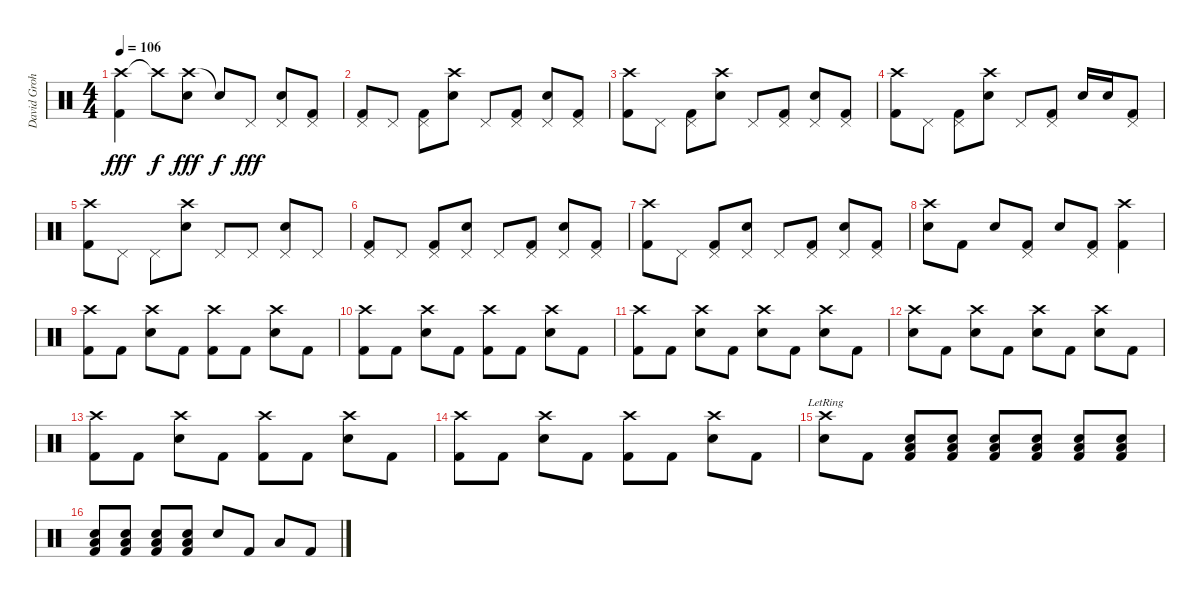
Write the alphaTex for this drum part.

\track ("David Grohl 2 Crash Style !!" "David Groh") {instrument percussion}
\staff {score}
\articulation defaults
\ts (4 4)
\tempo 106
\clef neutral
\ks c
("Crash high (hit)" "Kick (hit) 2").4{dy fff} "Crash high (hit)"{t}.8{dy f} ("Crash high (hit)" "Snare (hit) 2").8{dy fff} "Snare (hit)"{t}.8{dy f} "Pedal Hi-Hat (hit)".8{dy fff} ("Pedal Hi-Hat (hit)" "Snare (hit) 2").8 ("Pedal Hi-Hat (hit)" "Kick (hit) 2").8 |
("Pedal Hi-Hat (hit)" "Kick (hit) 2").8 "Pedal Hi-Hat (hit)".8 ("Pedal Hi-Hat (hit)" "Kick (hit) 2").8 ("Crash high (hit)" "Snare (hit) 2").8 "Pedal Hi-Hat (hit)".8 ("Pedal Hi-Hat (hit)" "Kick (hit) 2").8 ("Pedal Hi-Hat (hit)" "Snare (hit) 2").8 ("Pedal Hi-Hat (hit)" "Kick (hit) 2").8 |
("Crash high (hit)" "Kick (hit) 2").8 "Pedal Hi-Hat (hit)".8 ("Pedal Hi-Hat (hit)" "Kick (hit) 2").8 ("Crash high (hit)" "Snare (hit) 2").8 "Pedal Hi-Hat (hit)".8 ("Pedal Hi-Hat (hit)" "Kick (hit) 2").8 ("Pedal Hi-Hat (hit)" "Snare (hit) 2").8 ("Pedal Hi-Hat (hit)" "Kick (hit) 2").8 |
("Crash high (hit)" "Kick (hit) 2").8 "Pedal Hi-Hat (hit)".8 ("Pedal Hi-Hat (hit)" "Kick (hit) 2").8 ("Crash high (hit)" "Snare (hit) 2").8 "Pedal Hi-Hat (hit)".8 ("Pedal Hi-Hat (hit)" "Kick (hit) 2").8 "Snare (hit) 2".16 "Snare (hit) 2".16 ("Pedal Hi-Hat (hit)" "Kick (hit) 2").8 |
("Crash high (hit)" "Kick (hit) 2").8 "Pedal Hi-Hat (hit)".8 "Pedal Hi-Hat (hit)".8 ("Crash high (hit)" "Snare (hit) 2").8 "Pedal Hi-Hat (hit)".8 "Pedal Hi-Hat (hit)".8 ("Pedal Hi-Hat (hit)" "Snare (hit) 2").8 "Pedal Hi-Hat (hit)".8 |
("Pedal Hi-Hat (hit)" "Kick (hit) 2").8 "Pedal Hi-Hat (hit)".8 ("Pedal Hi-Hat (hit)" "Kick (hit) 2").8 ("Pedal Hi-Hat (hit)" "Snare (hit) 2").8 "Pedal Hi-Hat (hit)".8 ("Pedal Hi-Hat (hit)" "Kick (hit) 2").8 ("Pedal Hi-Hat (hit)" "Snare (hit) 2").8 ("Pedal Hi-Hat (hit)" "Kick (hit) 2").8 |
("Crash high (hit)" "Kick (hit) 2").8 "Pedal Hi-Hat (hit)".8 ("Pedal Hi-Hat (hit)" "Kick (hit) 2").8 ("Pedal Hi-Hat (hit)" "Snare (hit) 2").8 "Pedal Hi-Hat (hit)".8 ("Pedal Hi-Hat (hit)" "Kick (hit) 2").8 ("Pedal Hi-Hat (hit)" "Snare (hit) 2").8 ("Pedal Hi-Hat (hit)" "Kick (hit) 2").8 |
("Crash high (hit)" "Snare (hit) 2").8 "Kick (hit) 2".8 "Snare (hit) 2".8 ("Pedal Hi-Hat (hit)" "Kick (hit) 2").8 "Snare (hit) 2".8 ("Pedal Hi-Hat (hit)" "Kick (hit) 2").8 ("Crash high (hit)" "Kick (hit) 2").4 |
("Crash high (hit)" "Kick (hit) 2").8 "Kick (hit) 2".8 ("Crash high (hit)" "Snare (hit) 2").8 "Kick (hit) 2".8 ("Crash high (hit)" "Kick (hit) 2").8 "Kick (hit) 2".8 ("Crash high (hit)" "Snare (hit) 2").8 "Kick (hit) 2".8 |
("Crash high (hit)" "Kick (hit) 2").8 "Kick (hit) 2".8 ("Crash high (hit)" "Snare (hit) 2").8 "Kick (hit) 2".8 ("Crash high (hit)" "Kick (hit) 2").8 "Kick (hit) 2".8 ("Crash high (hit)" "Snare (hit) 2").8 "Kick (hit) 2".8 |
("Crash high (hit)" "Kick (hit) 2").8 "Kick (hit) 2".8 ("Crash high (hit)" "Snare (hit) 2").8 "Kick (hit) 2".8 ("Crash high (hit)" "Snare (hit) 2").8 "Kick (hit) 2".8 ("Crash high (hit)" "Snare (hit) 2").8 "Kick (hit) 2".8 |
("Crash high (hit)" "Snare (hit) 2").8 "Kick (hit) 2".8 ("Crash high (hit)" "Snare (hit) 2").8 "Kick (hit) 2".8 ("Crash high (hit)" "Snare (hit) 2").8 "Kick (hit) 2".8 ("Crash high (hit)" "Snare (hit) 2").8 "Kick (hit) 2".8 |
("Crash high (hit)" "Kick (hit) 2").8 "Kick (hit) 2".8 ("Crash high (hit)" "Snare (hit) 2").8 "Kick (hit) 2".8 ("Crash high (hit)" "Kick (hit) 2").8 "Kick (hit) 2".8 ("Crash high (hit)" "Snare (hit) 2").8 "Kick (hit) 2".8 |
("Crash high (hit)" "Kick (hit) 2").8 "Kick (hit) 2".8 ("Crash high (hit)" "Snare (hit) 2").8 "Kick (hit) 2".8 ("Crash high (hit)" "Kick (hit) 2").8 "Kick (hit) 2".8 ("Crash high (hit)" "Snare (hit) 2").8 "Kick (hit) 2".8 |
("Crash high (hit)"{lr} "Snare (hit) 2").8 "Kick (hit) 2".8 ("Snare (hit) 2" "Low Tom (hit)" "Kick (hit) 2").8 ("Snare (hit) 2" "Low Tom (hit)" "Kick (hit) 2").8 ("Snare (hit) 2" "Low Tom (hit)" "Kick (hit) 2").8 ("Snare (hit) 2" "Low Tom (hit)" "Kick (hit) 2").8 ("Snare (hit) 2" "Low Tom (hit)" "Kick (hit) 2").8 ("Snare (hit) 2" "Low Tom (hit)" "Kick (hit) 2").8 |
("Snare (hit) 2" "Low Tom (hit)" "Kick (hit) 2").8 ("Snare (hit) 2" "Low Tom (hit)" "Kick (hit) 2").8 ("Snare (hit) 2" "Low Tom (hit)" "Kick (hit) 2").8 ("Snare (hit) 2" "Low Tom (hit)" "Kick (hit) 2").8 "Snare (hit) 2".8 "Kick (hit) 2".8 "Low Tom (hit)".8 "Kick (hit) 2".8
